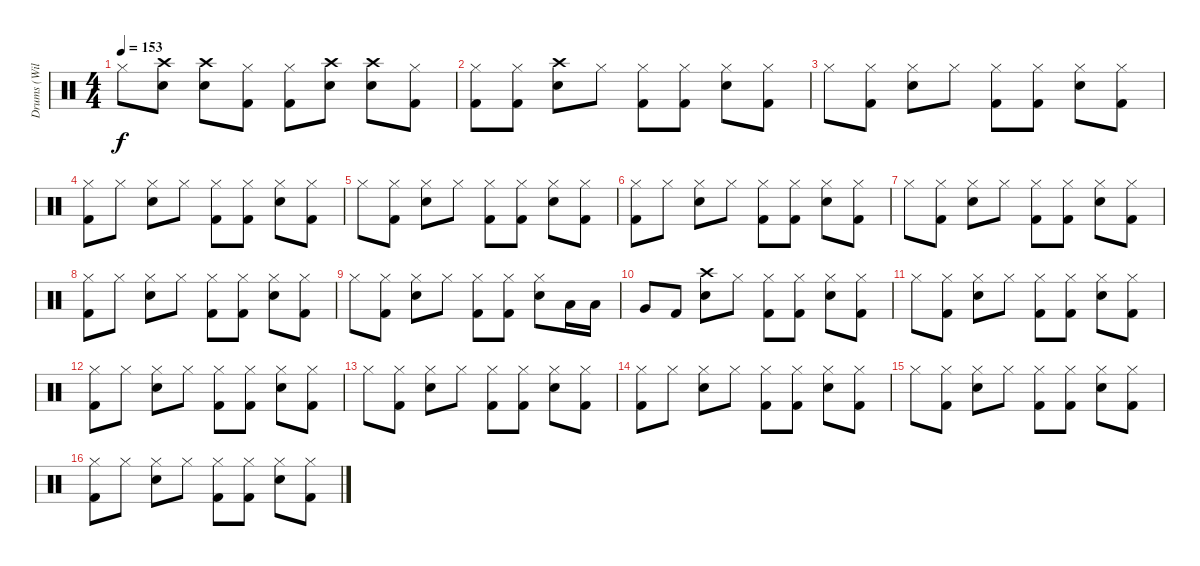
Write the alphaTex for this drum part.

\track ("Drums (Williams)" "Drums (Wil") {instrument percussion}
\staff {score}
\articulation defaults
\ts (4 4)
\tempo 153
\clef neutral
\ks c "Hi-Hat (closed)".8{dy f}
("Crash high (hit)" "Electric Snare (hit)").8 ("Crash high (hit)" "Electric Snare (hit)").8 ("Hi-Hat (closed)" "Kick (hit) 2").8 ("Hi-Hat (closed)" "Kick (hit) 2").8 ("Crash high (hit)" "Electric Snare (hit)").8 ("Crash high (hit)" "Electric Snare (hit)").8 ("Hi-Hat (closed)" "Kick (hit) 2").8 |
("Hi-Hat (closed)" "Kick (hit) 2").8 ("Hi-Hat (closed)" "Kick (hit) 2").8 ("Crash high (hit)" "Electric Snare (hit)").8 "Hi-Hat (closed)".8 ("Hi-Hat (closed)" "Kick (hit) 2").8 ("Hi-Hat (closed)" "Kick (hit) 2").8 ("Hi-Hat (closed)" "Electric Snare (hit)").8 ("Hi-Hat (closed)" "Kick (hit) 2").8 |
"Hi-Hat (closed)".8 ("Hi-Hat (closed)" "Kick (hit) 2").8 ("Hi-Hat (closed)" "Electric Snare (hit)").8 "Hi-Hat (closed)".8 ("Hi-Hat (closed)" "Kick (hit) 2").8 ("Hi-Hat (closed)" "Kick (hit) 2").8 ("Hi-Hat (closed)" "Electric Snare (hit)").8 ("Hi-Hat (closed)" "Kick (hit) 2").8 |
("Hi-Hat (closed)" "Kick (hit) 2").8 "Hi-Hat (closed)".8 ("Hi-Hat (closed)" "Electric Snare (hit)").8 "Hi-Hat (closed)".8 ("Hi-Hat (closed)" "Kick (hit) 2").8 ("Hi-Hat (closed)" "Kick (hit) 2").8 ("Hi-Hat (closed)" "Electric Snare (hit)").8 ("Hi-Hat (closed)" "Kick (hit) 2").8 |
"Hi-Hat (closed)".8 ("Hi-Hat (closed)" "Kick (hit) 2").8 ("Hi-Hat (closed)" "Electric Snare (hit)").8 "Hi-Hat (closed)".8 ("Hi-Hat (closed)" "Kick (hit) 2").8 ("Hi-Hat (closed)" "Kick (hit) 2").8 ("Hi-Hat (closed)" "Electric Snare (hit)").8 ("Hi-Hat (closed)" "Kick (hit) 2").8 |
("Hi-Hat (closed)" "Kick (hit) 2").8 "Hi-Hat (closed)".8 ("Hi-Hat (closed)" "Electric Snare (hit)").8 "Hi-Hat (closed)".8 ("Hi-Hat (closed)" "Kick (hit) 2").8 ("Hi-Hat (closed)" "Kick (hit) 2").8 ("Hi-Hat (closed)" "Electric Snare (hit)").8 ("Hi-Hat (closed)" "Kick (hit) 2").8 |
"Hi-Hat (closed)".8 ("Hi-Hat (closed)" "Kick (hit) 2").8 ("Hi-Hat (closed)" "Electric Snare (hit)").8 "Hi-Hat (closed)".8 ("Hi-Hat (closed)" "Kick (hit) 2").8 ("Hi-Hat (closed)" "Kick (hit) 2").8 ("Hi-Hat (closed)" "Electric Snare (hit)").8 ("Hi-Hat (closed)" "Kick (hit) 2").8 |
("Hi-Hat (closed)" "Kick (hit) 2").8 "Hi-Hat (closed)".8 ("Hi-Hat (closed)" "Electric Snare (hit)").8 "Hi-Hat (closed)".8 ("Hi-Hat (closed)" "Kick (hit) 2").8 ("Hi-Hat (closed)" "Kick (hit) 2").8 ("Hi-Hat (closed)" "Electric Snare (hit)").8 ("Hi-Hat (closed)" "Kick (hit) 2").8 |
"Hi-Hat (closed)".8 ("Hi-Hat (closed)" "Kick (hit) 2").8 ("Hi-Hat (closed)" "Electric Snare (hit)").8 "Hi-Hat (closed)".8 ("Hi-Hat (closed)" "Kick (hit) 2").8 ("Hi-Hat (closed)" "Kick (hit) 2").8 ("Hi-Hat (closed)" "Electric Snare (hit)").8 "Low Tom (hit)".16 "Low Tom (hit)".16 |
"Very Low Tom (hit)".8 "Kick (hit) 2".8 ("Crash high (hit)" "Electric Snare (hit)").8 "Hi-Hat (closed)".8 ("Hi-Hat (closed)" "Kick (hit) 2").8 ("Hi-Hat (closed)" "Kick (hit) 2").8 ("Hi-Hat (closed)" "Electric Snare (hit)").8 ("Hi-Hat (closed)" "Kick (hit) 2").8 |
"Hi-Hat (closed)".8 ("Hi-Hat (closed)" "Kick (hit) 2").8 ("Hi-Hat (closed)" "Electric Snare (hit)").8 "Hi-Hat (closed)".8 ("Hi-Hat (closed)" "Kick (hit) 2").8 ("Hi-Hat (closed)" "Kick (hit) 2").8 ("Hi-Hat (closed)" "Electric Snare (hit)").8 ("Hi-Hat (closed)" "Kick (hit) 2").8 |
("Hi-Hat (closed)" "Kick (hit) 2").8 "Hi-Hat (closed)".8 ("Hi-Hat (closed)" "Electric Snare (hit)").8 "Hi-Hat (closed)".8 ("Hi-Hat (closed)" "Kick (hit) 2").8 ("Hi-Hat (closed)" "Kick (hit) 2").8 ("Hi-Hat (closed)" "Electric Snare (hit)").8 ("Hi-Hat (closed)" "Kick (hit) 2").8 |
"Hi-Hat (closed)".8 ("Hi-Hat (closed)" "Kick (hit) 2").8 ("Hi-Hat (closed)" "Electric Snare (hit)").8 "Hi-Hat (closed)".8 ("Hi-Hat (closed)" "Kick (hit) 2").8 ("Hi-Hat (closed)" "Kick (hit) 2").8 ("Hi-Hat (closed)" "Electric Snare (hit)").8 ("Hi-Hat (closed)" "Kick (hit) 2").8 |
("Hi-Hat (closed)" "Kick (hit) 2").8 "Hi-Hat (closed)".8 ("Hi-Hat (closed)" "Electric Snare (hit)").8 "Hi-Hat (closed)".8 ("Hi-Hat (closed)" "Kick (hit) 2").8 ("Hi-Hat (closed)" "Kick (hit) 2").8 ("Hi-Hat (closed)" "Electric Snare (hit)").8 ("Hi-Hat (closed)" "Kick (hit) 2").8 |
"Hi-Hat (closed)".8 ("Hi-Hat (closed)" "Kick (hit) 2").8 ("Hi-Hat (closed)" "Electric Snare (hit)").8 "Hi-Hat (closed)".8 ("Hi-Hat (closed)" "Kick (hit) 2").8 ("Hi-Hat (closed)" "Kick (hit) 2").8 ("Hi-Hat (closed)" "Electric Snare (hit)").8 ("Hi-Hat (closed)" "Kick (hit) 2").8 |
("Hi-Hat (closed)" "Kick (hit) 2").8 "Hi-Hat (closed)".8 ("Hi-Hat (closed)" "Electric Snare (hit)").8 "Hi-Hat (closed)".8 ("Hi-Hat (closed)" "Kick (hit) 2").8 ("Hi-Hat (closed)" "Kick (hit) 2").8 ("Hi-Hat (closed)" "Electric Snare (hit)").8 ("Hi-Hat (closed)" "Kick (hit) 2").8
